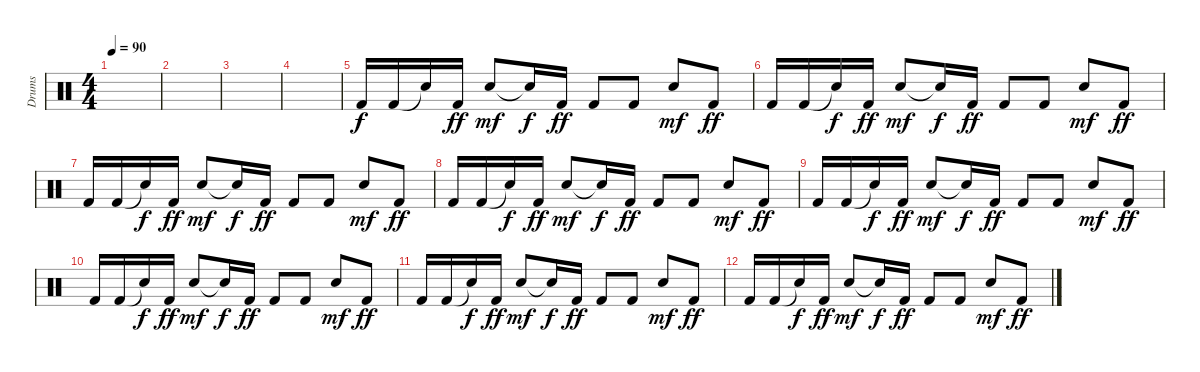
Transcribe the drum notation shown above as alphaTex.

\track ("Drums" "Drums") {instrument percussion}
\staff {score}
\articulation defaults
\ts (4 4)
\tempo 90
\clef neutral
\ks c
|
|
|
|
"Kick (hit) 2".16 "Kick (hit) 2".16 "Snare (hit)"{t}.16{dy f} "Kick (hit) 2".16{dy ff} "Snare (hit) 2".8{dy mf} "Snare (hit)"{t}.16{dy f} "Kick (hit) 2".16{dy ff} "Kick (hit) 2".8 "Kick (hit) 2".8 "Snare (hit) 2".8{dy mf} "Kick (hit) 2".8{dy ff} |
"Kick (hit) 2".16 "Kick (hit) 2".16 "Snare (hit)"{t}.16{dy f} "Kick (hit) 2".16{dy ff} "Snare (hit) 2".8{dy mf} "Snare (hit)"{t}.16{dy f} "Kick (hit) 2".16{dy ff} "Kick (hit) 2".8 "Kick (hit) 2".8 "Snare (hit) 2".8{dy mf} "Kick (hit) 2".8{dy ff} |
"Kick (hit) 2".16 "Kick (hit) 2".16 "Snare (hit)"{t}.16{dy f} "Kick (hit) 2".16{dy ff} "Snare (hit) 2".8{dy mf} "Snare (hit)"{t}.16{dy f} "Kick (hit) 2".16{dy ff} "Kick (hit) 2".8 "Kick (hit) 2".8 "Snare (hit) 2".8{dy mf} "Kick (hit) 2".8{dy ff} |
"Kick (hit) 2".16 "Kick (hit) 2".16 "Snare (hit)"{t}.16{dy f} "Kick (hit) 2".16{dy ff} "Snare (hit) 2".8{dy mf} "Snare (hit)"{t}.16{dy f} "Kick (hit) 2".16{dy ff} "Kick (hit) 2".8 "Kick (hit) 2".8 "Snare (hit) 2".8{dy mf} "Kick (hit) 2".8{dy ff} |
"Kick (hit) 2".16 "Kick (hit) 2".16 "Snare (hit)"{t}.16{dy f} "Kick (hit) 2".16{dy ff} "Snare (hit) 2".8{dy mf} "Snare (hit)"{t}.16{dy f} "Kick (hit) 2".16{dy ff} "Kick (hit) 2".8 "Kick (hit) 2".8 "Snare (hit) 2".8{dy mf} "Kick (hit) 2".8{dy ff} |
"Kick (hit) 2".16 "Kick (hit) 2".16 "Snare (hit)"{t}.16{dy f} "Kick (hit) 2".16{dy ff} "Snare (hit) 2".8{dy mf} "Snare (hit)"{t}.16{dy f} "Kick (hit) 2".16{dy ff} "Kick (hit) 2".8 "Kick (hit) 2".8 "Snare (hit) 2".8{dy mf} "Kick (hit) 2".8{dy ff} |
"Kick (hit) 2".16 "Kick (hit) 2".16 "Snare (hit)"{t}.16{dy f} "Kick (hit) 2".16{dy ff} "Snare (hit) 2".8{dy mf} "Snare (hit)"{t}.16{dy f} "Kick (hit) 2".16{dy ff} "Kick (hit) 2".8 "Kick (hit) 2".8 "Snare (hit) 2".8{dy mf} "Kick (hit) 2".8{dy ff} |
"Kick (hit) 2".16 "Kick (hit) 2".16 "Snare (hit)"{t}.16{dy f} "Kick (hit) 2".16{dy ff} "Snare (hit) 2".8{dy mf} "Snare (hit)"{t}.16{dy f} "Kick (hit) 2".16{dy ff} "Kick (hit) 2".8 "Kick (hit) 2".8 "Snare (hit) 2".8{dy mf} "Kick (hit) 2".8{dy ff}
